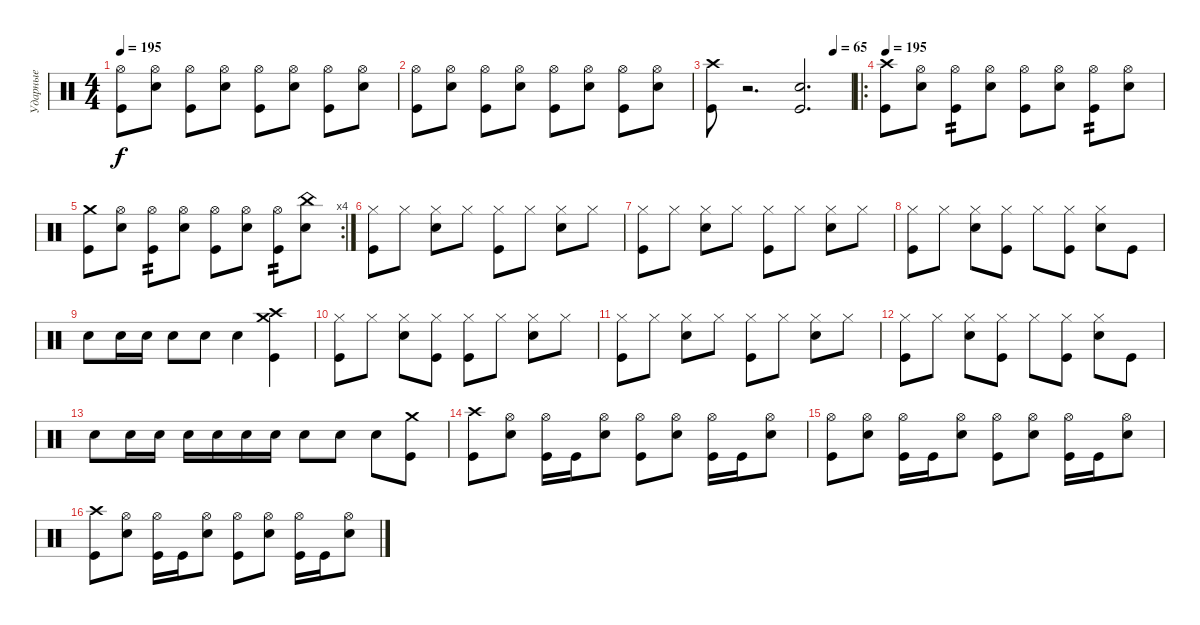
\track ("Ударные" "Ударные") {instrument percussion}
\staff {score}
\articulation defaults
\ts (4 4)
\tempo 195
\clef neutral
\ks c
("Kick (hit)" "Hi-Hat (open)").8{dy f} ("Electric Snare (hit)" "Hi-Hat (open)").8 ("Kick (hit)" "Hi-Hat (open)").8 ("Electric Snare (hit)" "Hi-Hat (open)").8 ("Kick (hit)" "Hi-Hat (open)").8 ("Electric Snare (hit)" "Hi-Hat (open)").8 ("Kick (hit)" "Hi-Hat (open)").8 ("Electric Snare (hit)" "Hi-Hat (open)").8 |
("Kick (hit)" "Hi-Hat (open)").8 ("Electric Snare (hit)" "Hi-Hat (open)").8 ("Kick (hit)" "Hi-Hat (open)").8 ("Electric Snare (hit)" "Hi-Hat (open)").8 ("Kick (hit)" "Hi-Hat (open)").8 ("Electric Snare (hit)" "Hi-Hat (open)").8 ("Kick (hit)" "Hi-Hat (open)").8 ("Electric Snare (hit)" "Hi-Hat (open)").8 |
\tempo (65 0.875)
("Kick (hit)" "Crash high (hit)").8 r.2{d} ("Electric Snare (hit)" "Kick (hit)").2{d} |
\ro
\tempo 195
("Kick (hit)" "Crash high (hit)").8 ("Electric Snare (hit)" "Hi-Hat (open)").8 ("Kick (hit)" "Hi-Hat (open)").8{tp 2} ("Electric Snare (hit)" "Hi-Hat (open)").8 ("Kick (hit)" "Hi-Hat (open)").8 ("Electric Snare (hit)" "Hi-Hat (open)").8 ("Kick (hit)" "Hi-Hat (open)").8{tp 2} ("Electric Snare (hit)" "Hi-Hat (open)").8 |
\rc 4
("Kick (hit)" "Crash medium (hit)").8 ("Electric Snare (hit)" "Hi-Hat (open)").8 ("Kick (hit)" "Hi-Hat (open)").8{tp 2} ("Electric Snare (hit)" "Hi-Hat (open)").8 ("Kick (hit)" "Hi-Hat (open)").8 ("Electric Snare (hit)" "Hi-Hat (open)").8 ("Kick (hit)" "Hi-Hat (open)").8{tp 2} ("Electric Snare (hit)" "China (hit)").8 |
("Hi-Hat (closed)" "Kick (hit)").8 "Hi-Hat (closed)".8 ("Hi-Hat (closed)" "Electric Snare (hit)").8 "Hi-Hat (closed)".8 ("Hi-Hat (closed)" "Kick (hit)").8 "Hi-Hat (closed)".8 ("Hi-Hat (closed)" "Electric Snare (hit)").8 "Hi-Hat (closed)".8 |
("Hi-Hat (closed)" "Kick (hit)").8 "Hi-Hat (closed)".8 ("Hi-Hat (closed)" "Electric Snare (hit)").8 "Hi-Hat (closed)".8 ("Hi-Hat (closed)" "Kick (hit)").8 "Hi-Hat (closed)".8 ("Hi-Hat (closed)" "Electric Snare (hit)").8 "Hi-Hat (closed)".8 |
("Hi-Hat (closed)" "Kick (hit)").8 "Hi-Hat (closed)".8 ("Hi-Hat (closed)" "Electric Snare (hit)").8 ("Hi-Hat (closed)" "Kick (hit)").8 "Hi-Hat (closed)".8 ("Hi-Hat (closed)" "Kick (hit)").8 ("Hi-Hat (closed)" "Electric Snare (hit)").8 "Kick (hit)".8 |
"Electric Snare (hit)".8 "Electric Snare (hit)".16 "Electric Snare (hit)".16 "Electric Snare (hit)".8 "Electric Snare (hit)".8 "Electric Snare (hit)".4 ("Crash medium (hit)" "Kick (hit)" "Crash high (hit)").4{balance 6} |
("Hi-Hat (closed)" "Kick (hit)").8 "Hi-Hat (closed)".8 ("Hi-Hat (closed)" "Electric Snare (hit)").8 ("Hi-Hat (closed)" "Kick (hit)").8 ("Hi-Hat (closed)" "Kick (hit)").8 "Hi-Hat (closed)".8 ("Hi-Hat (closed)" "Electric Snare (hit)").8 "Hi-Hat (closed)".8 |
("Hi-Hat (closed)" "Kick (hit)").8 "Hi-Hat (closed)".8 ("Hi-Hat (closed)" "Electric Snare (hit)").8 "Hi-Hat (closed)".8 ("Hi-Hat (closed)" "Kick (hit)").8 "Hi-Hat (closed)".8 ("Hi-Hat (closed)" "Electric Snare (hit)").8 "Hi-Hat (closed)".8 |
("Hi-Hat (closed)" "Kick (hit)").8 "Hi-Hat (closed)".8 ("Hi-Hat (closed)" "Electric Snare (hit)").8 ("Hi-Hat (closed)" "Kick (hit)").8 "Hi-Hat (closed)".8 ("Hi-Hat (closed)" "Kick (hit)").8 ("Hi-Hat (closed)" "Electric Snare (hit)").8 "Kick (hit)".8 |
"Electric Snare (hit)".8 "Electric Snare (hit)".16 "Electric Snare (hit)".16 "Electric Snare (hit)".16 "Electric Snare (hit)".16 "Electric Snare (hit)".16 "Electric Snare (hit)".16 "Electric Snare (hit)".8 "Electric Snare (hit)".8 "Electric Snare (hit)".8 ("Crash medium (hit)" "Kick (hit)").8 |
("Kick (hit)" "Crash high (hit)").8 ("Electric Snare (hit)" "Hi-Hat (open)").8 ("Kick (hit)" "Hi-Hat (open)").16 "Kick (hit)".16 ("Electric Snare (hit)" "Hi-Hat (open)").8 ("Kick (hit)" "Hi-Hat (open)").8 ("Electric Snare (hit)" "Hi-Hat (open)").8 ("Kick (hit)" "Hi-Hat (open)").16 "Kick (hit)".16 ("Electric Snare (hit)" "Hi-Hat (open)").8 |
("Kick (hit)" "Hi-Hat (open)").8 ("Electric Snare (hit)" "Hi-Hat (open)").8 ("Kick (hit)" "Hi-Hat (open)").16 "Kick (hit)".16 ("Electric Snare (hit)" "Hi-Hat (open)").8 ("Kick (hit)" "Hi-Hat (open)").8 ("Electric Snare (hit)" "Hi-Hat (open)").8 ("Kick (hit)" "Hi-Hat (open)").16 "Kick (hit)".16 ("Electric Snare (hit)" "Hi-Hat (open)").8 |
("Kick (hit)" "Crash high (hit)").8 ("Electric Snare (hit)" "Hi-Hat (open)").8 ("Kick (hit)" "Hi-Hat (open)").16 "Kick (hit)".16 ("Electric Snare (hit)" "Hi-Hat (open)").8 ("Kick (hit)" "Hi-Hat (open)").8 ("Electric Snare (hit)" "Hi-Hat (open)").8 ("Kick (hit)" "Hi-Hat (open)").16 "Kick (hit)".16 ("Electric Snare (hit)" "Hi-Hat (open)").8
